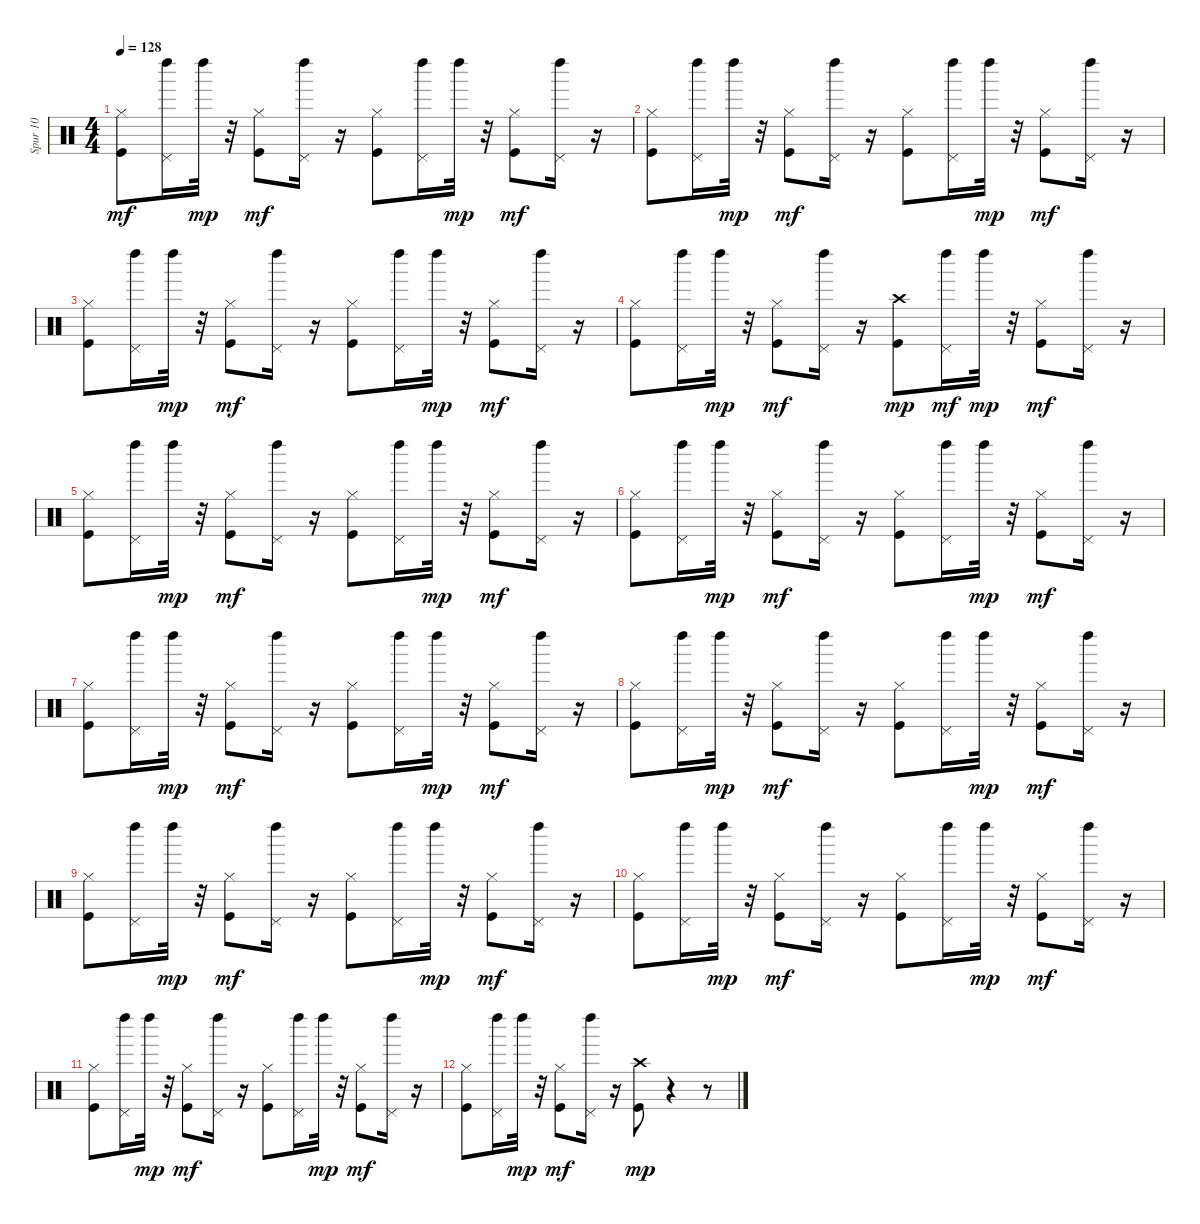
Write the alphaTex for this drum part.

\track ("Spur 10" "Spur 10") {instrument percussion}
\staff {score}
\articulation defaults
\ts (4 4)
\tempo 128
\clef neutral
\ks c
("Kick (hit)" "Hi-Hat (closed)").8{dy mf} ("Pedal Hi-Hat (hit)" "Left Maraca (hit)").16 "Left Maraca (hit)".32{dy mp} r.32 ("Kick (hit)" "Hi-Hat (closed)").8{dy mf} ("Pedal Hi-Hat (hit)" "Left Maraca (hit)").16 r.16 ("Kick (hit)" "Hi-Hat (closed)").8 ("Pedal Hi-Hat (hit)" "Left Maraca (hit)").16 "Left Maraca (hit)".32{dy mp} r.32 ("Kick (hit)" "Hi-Hat (closed)").8{dy mf} ("Pedal Hi-Hat (hit)" "Left Maraca (hit)").16 r.16 |
("Kick (hit)" "Hi-Hat (closed)").8 ("Pedal Hi-Hat (hit)" "Left Maraca (hit)").16 "Left Maraca (hit)".32{dy mp} r.32 ("Kick (hit)" "Hi-Hat (closed)").8{dy mf} ("Pedal Hi-Hat (hit)" "Left Maraca (hit)").16 r.16 ("Kick (hit)" "Hi-Hat (closed)").8 ("Pedal Hi-Hat (hit)" "Left Maraca (hit)").16 "Left Maraca (hit)".32{dy mp} r.32 ("Kick (hit)" "Hi-Hat (closed)").8{dy mf} ("Pedal Hi-Hat (hit)" "Left Maraca (hit)").16 r.16 |
("Kick (hit)" "Hi-Hat (closed)").8 ("Pedal Hi-Hat (hit)" "Left Maraca (hit)").16 "Left Maraca (hit)".32{dy mp} r.32 ("Kick (hit)" "Hi-Hat (closed)").8{dy mf} ("Pedal Hi-Hat (hit)" "Left Maraca (hit)").16 r.16 ("Kick (hit)" "Hi-Hat (closed)").8 ("Pedal Hi-Hat (hit)" "Left Maraca (hit)").16 "Left Maraca (hit)".32{dy mp} r.32 ("Kick (hit)" "Hi-Hat (closed)").8{dy mf} ("Pedal Hi-Hat (hit)" "Left Maraca (hit)").16 r.16 |
("Kick (hit)" "Hi-Hat (closed)").8 ("Pedal Hi-Hat (hit)" "Left Maraca (hit)").16 "Left Maraca (hit)".32{dy mp} r.32 ("Kick (hit)" "Hi-Hat (closed)").8{dy mf} ("Pedal Hi-Hat (hit)" "Left Maraca (hit)").16 r.16 ("Kick (hit)" "Crash high (hit)").8{dy mp} ("Pedal Hi-Hat (hit)" "Left Maraca (hit)").16{dy mf} "Left Maraca (hit)".32{dy mp} r.32 ("Kick (hit)" "Hi-Hat (closed)").8{dy mf} ("Pedal Hi-Hat (hit)" "Left Maraca (hit)").16 r.16 |
("Kick (hit)" "Hi-Hat (closed)").8 ("Pedal Hi-Hat (hit)" "Left Maraca (hit)").16 "Left Maraca (hit)".32{dy mp} r.32 ("Kick (hit)" "Hi-Hat (closed)").8{dy mf} ("Pedal Hi-Hat (hit)" "Left Maraca (hit)").16 r.16 ("Kick (hit)" "Hi-Hat (closed)").8 ("Pedal Hi-Hat (hit)" "Left Maraca (hit)").16 "Left Maraca (hit)".32{dy mp} r.32 ("Kick (hit)" "Hi-Hat (closed)").8{dy mf} ("Pedal Hi-Hat (hit)" "Left Maraca (hit)").16 r.16 |
("Kick (hit)" "Hi-Hat (closed)").8 ("Pedal Hi-Hat (hit)" "Left Maraca (hit)").16 "Left Maraca (hit)".32{dy mp} r.32 ("Kick (hit)" "Hi-Hat (closed)").8{dy mf} ("Pedal Hi-Hat (hit)" "Left Maraca (hit)").16 r.16 ("Kick (hit)" "Hi-Hat (closed)").8 ("Pedal Hi-Hat (hit)" "Left Maraca (hit)").16 "Left Maraca (hit)".32{dy mp} r.32 ("Kick (hit)" "Hi-Hat (closed)").8{dy mf} ("Pedal Hi-Hat (hit)" "Left Maraca (hit)").16 r.16 |
("Kick (hit)" "Hi-Hat (closed)").8 ("Pedal Hi-Hat (hit)" "Left Maraca (hit)").16 "Left Maraca (hit)".32{dy mp} r.32 ("Kick (hit)" "Hi-Hat (closed)").8{dy mf} ("Pedal Hi-Hat (hit)" "Left Maraca (hit)").16 r.16 ("Kick (hit)" "Hi-Hat (closed)").8 ("Pedal Hi-Hat (hit)" "Left Maraca (hit)").16 "Left Maraca (hit)".32{dy mp} r.32 ("Kick (hit)" "Hi-Hat (closed)").8{dy mf} ("Pedal Hi-Hat (hit)" "Left Maraca (hit)").16 r.16 |
("Kick (hit)" "Hi-Hat (closed)").8 ("Pedal Hi-Hat (hit)" "Left Maraca (hit)").16 "Left Maraca (hit)".32{dy mp} r.32 ("Kick (hit)" "Hi-Hat (closed)").8{dy mf} ("Pedal Hi-Hat (hit)" "Left Maraca (hit)").16 r.16 ("Kick (hit)" "Hi-Hat (closed)").8 ("Pedal Hi-Hat (hit)" "Left Maraca (hit)").16 "Left Maraca (hit)".32{dy mp} r.32 ("Kick (hit)" "Hi-Hat (closed)").8{dy mf} ("Pedal Hi-Hat (hit)" "Left Maraca (hit)").16 r.16 |
("Kick (hit)" "Hi-Hat (closed)").8 ("Pedal Hi-Hat (hit)" "Left Maraca (hit)").16 "Left Maraca (hit)".32{dy mp} r.32 ("Kick (hit)" "Hi-Hat (closed)").8{dy mf} ("Pedal Hi-Hat (hit)" "Left Maraca (hit)").16 r.16 ("Kick (hit)" "Hi-Hat (closed)").8 ("Pedal Hi-Hat (hit)" "Left Maraca (hit)").16 "Left Maraca (hit)".32{dy mp} r.32 ("Kick (hit)" "Hi-Hat (closed)").8{dy mf} ("Pedal Hi-Hat (hit)" "Left Maraca (hit)").16 r.16 |
("Kick (hit)" "Hi-Hat (closed)").8 ("Pedal Hi-Hat (hit)" "Left Maraca (hit)").16 "Left Maraca (hit)".32{dy mp} r.32 ("Kick (hit)" "Hi-Hat (closed)").8{dy mf} ("Pedal Hi-Hat (hit)" "Left Maraca (hit)").16 r.16 ("Kick (hit)" "Hi-Hat (closed)").8 ("Pedal Hi-Hat (hit)" "Left Maraca (hit)").16 "Left Maraca (hit)".32{dy mp} r.32 ("Kick (hit)" "Hi-Hat (closed)").8{dy mf} ("Pedal Hi-Hat (hit)" "Left Maraca (hit)").16 r.16 |
("Kick (hit)" "Hi-Hat (closed)").8 ("Pedal Hi-Hat (hit)" "Left Maraca (hit)").16 "Left Maraca (hit)".32{dy mp} r.32 ("Kick (hit)" "Hi-Hat (closed)").8{dy mf} ("Pedal Hi-Hat (hit)" "Left Maraca (hit)").16 r.16 ("Kick (hit)" "Hi-Hat (closed)").8 ("Pedal Hi-Hat (hit)" "Left Maraca (hit)").16 "Left Maraca (hit)".32{dy mp} r.32 ("Kick (hit)" "Hi-Hat (closed)").8{dy mf} ("Pedal Hi-Hat (hit)" "Left Maraca (hit)").16 r.16 |
("Kick (hit)" "Hi-Hat (closed)").8 ("Pedal Hi-Hat (hit)" "Left Maraca (hit)").16 "Left Maraca (hit)".32{dy mp} r.32 ("Kick (hit)" "Hi-Hat (closed)").8{dy mf} ("Pedal Hi-Hat (hit)" "Left Maraca (hit)").16 r.16 ("Kick (hit)" "Crash high (hit)").8{dy mp} r.4 r.8
